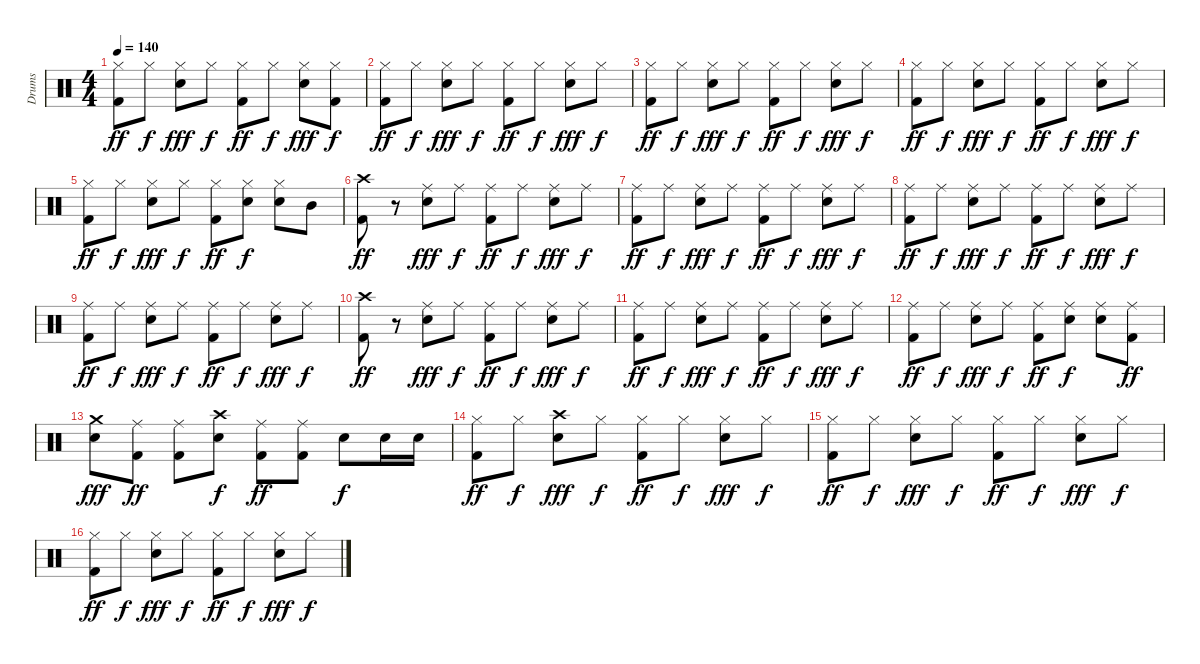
\track ("Drums" "Drums") {instrument percussion}
\staff {score}
\articulation defaults
\ts (4 4)
\tempo 140
\clef neutral
\ks c
("Hi-Hat (closed)" "Kick (hit) 2").8{dy ff} "Hi-Hat (closed)".8{dy f} ("Hi-Hat (closed)" "Snare (hit) 2").8{dy fff} "Hi-Hat (closed)".8{dy f} ("Hi-Hat (closed)" "Kick (hit) 2").8{dy ff} "Hi-Hat (closed)".8{dy f} ("Hi-Hat (closed)" "Snare (hit) 2").8{dy fff} ("Hi-Hat (closed)" "Kick (hit) 2").8{dy f} |
("Hi-Hat (closed)" "Kick (hit) 2").8{dy ff} "Hi-Hat (closed)".8{dy f} ("Hi-Hat (closed)" "Snare (hit) 2").8{dy fff} "Hi-Hat (closed)".8{dy f} ("Hi-Hat (closed)" "Kick (hit) 2").8{dy ff} "Hi-Hat (closed)".8{dy f} ("Hi-Hat (closed)" "Snare (hit) 2").8{dy fff} "Hi-Hat (closed)".8{dy f} |
("Hi-Hat (closed)" "Kick (hit) 2").8{dy ff} "Hi-Hat (closed)".8{dy f} ("Hi-Hat (closed)" "Snare (hit) 2").8{dy fff} "Hi-Hat (closed)".8{dy f} ("Hi-Hat (closed)" "Kick (hit) 2").8{dy ff} "Hi-Hat (closed)".8{dy f} ("Hi-Hat (closed)" "Snare (hit) 2").8{dy fff} "Hi-Hat (closed)".8{dy f} |
("Hi-Hat (closed)" "Kick (hit) 2").8{dy ff} "Hi-Hat (closed)".8{dy f} ("Hi-Hat (closed)" "Snare (hit) 2").8{dy fff} "Hi-Hat (closed)".8{dy f} ("Hi-Hat (closed)" "Kick (hit) 2").8{dy ff} "Hi-Hat (closed)".8{dy f} ("Hi-Hat (closed)" "Snare (hit) 2").8{dy fff} "Hi-Hat (closed)".8{dy f} |
("Hi-Hat (closed)" "Kick (hit) 2").8{dy ff} "Hi-Hat (closed)".8{dy f} ("Hi-Hat (closed)" "Snare (hit) 2").8{dy fff} "Hi-Hat (closed)".8{dy f} ("Hi-Hat (closed)" "Kick (hit) 2").8{dy ff} ("Hi-Hat (closed)" "Snare (hit) 2").8{dy f} ("Hi-Hat (closed)" "Snare (hit) 2").8 "Mid Tom (hit)".8 |
("Crash high (hit)" "Kick (hit) 2").8{dy ff} r.8 ("Ride (middle)" "Snare (hit) 2").8{dy fff} "Ride (middle)".8{dy f} ("Ride (middle)" "Kick (hit) 2").8{dy ff} "Ride (middle)".8{dy f} ("Ride (middle)" "Snare (hit) 2").8{dy fff} "Ride (middle)".8{dy f} |
("Ride (middle)" "Kick (hit) 2").8{dy ff} "Ride (middle)".8{dy f} ("Ride (middle)" "Snare (hit) 2").8{dy fff} "Ride (middle)".8{dy f} ("Ride (middle)" "Kick (hit) 2").8{dy ff} "Ride (middle)".8{dy f} ("Ride (middle)" "Snare (hit) 2").8{dy fff} "Ride (middle)".8{dy f} |
("Ride (middle)" "Kick (hit) 2").8{dy ff} "Ride (middle)".8{dy f} ("Ride (middle)" "Snare (hit) 2").8{dy fff} "Ride (middle)".8{dy f} ("Ride (middle)" "Kick (hit) 2").8{dy ff} "Ride (middle)".8{dy f} ("Ride (middle)" "Snare (hit) 2").8{dy fff} "Ride (middle)".8{dy f} |
("Ride (middle)" "Kick (hit) 2").8{dy ff} "Ride (middle)".8{dy f} ("Ride (middle)" "Snare (hit) 2").8{dy fff} "Ride (middle)".8{dy f} ("Ride (middle)" "Kick (hit) 2").8{dy ff} "Ride (middle)".8{dy f} ("Ride (middle)" "Snare (hit) 2").8{dy fff} "Ride (middle)".8{dy f} |
("Crash high (hit)" "Kick (hit) 2").8{dy ff} r.8 ("Ride (middle)" "Snare (hit) 2").8{dy fff} "Ride (middle)".8{dy f} ("Ride (middle)" "Kick (hit) 2").8{dy ff} "Ride (middle)".8{dy f} ("Ride (middle)" "Snare (hit) 2").8{dy fff} "Ride (middle)".8{dy f} |
("Ride (middle)" "Kick (hit) 2").8{dy ff} "Ride (middle)".8{dy f} ("Ride (middle)" "Snare (hit) 2").8{dy fff} "Ride (middle)".8{dy f} ("Ride (middle)" "Kick (hit) 2").8{dy ff} "Ride (middle)".8{dy f} ("Ride (middle)" "Snare (hit) 2").8{dy fff} "Ride (middle)".8{dy f} |
("Ride (middle)" "Kick (hit) 2").8{dy ff} "Ride (middle)".8{dy f} ("Ride (middle)" "Snare (hit) 2").8{dy fff} "Ride (middle)".8{dy f} ("Ride (middle)" "Kick (hit) 2").8{dy ff} ("Ride (middle)" "Snare (hit) 2").8{dy f} ("Ride (middle)" "Snare (hit) 2").8 ("Ride (middle)" "Kick (hit) 2").8{dy ff} |
("Crash medium (hit)" "Snare (hit) 2").8{dy fff} ("Ride (middle)" "Kick (hit) 2").8{dy ff} ("Ride (middle)" "Kick (hit) 2").8 ("Crash high (hit)" "Snare (hit) 2").8{dy f} ("Ride (middle)" "Kick (hit) 2").8{dy ff} ("Ride (middle)" "Kick (hit) 2").8 "Snare (hit) 2".8{dy f} "Snare (hit) 2".16 "Snare (hit) 2".16 |
("Hi-Hat (closed)" "Kick (hit) 2").8{dy ff} "Hi-Hat (closed)".8{dy f} ("Crash high (hit)" "Snare (hit) 2").8{dy fff} "Hi-Hat (closed)".8{dy f} ("Hi-Hat (closed)" "Kick (hit) 2").8{dy ff} "Hi-Hat (closed)".8{dy f} ("Hi-Hat (closed)" "Snare (hit) 2").8{dy fff} "Hi-Hat (closed)".8{dy f} |
("Hi-Hat (closed)" "Kick (hit) 2").8{dy ff} "Hi-Hat (closed)".8{dy f} ("Hi-Hat (closed)" "Snare (hit) 2").8{dy fff} "Hi-Hat (closed)".8{dy f} ("Hi-Hat (closed)" "Kick (hit) 2").8{dy ff} "Hi-Hat (closed)".8{dy f} ("Hi-Hat (closed)" "Snare (hit) 2").8{dy fff} "Hi-Hat (closed)".8{dy f} |
("Hi-Hat (closed)" "Kick (hit) 2").8{dy ff} "Hi-Hat (closed)".8{dy f} ("Hi-Hat (closed)" "Snare (hit) 2").8{dy fff} "Hi-Hat (closed)".8{dy f} ("Hi-Hat (closed)" "Kick (hit) 2").8{dy ff} "Hi-Hat (closed)".8{dy f} ("Hi-Hat (closed)" "Snare (hit) 2").8{dy fff} "Hi-Hat (closed)".8{dy f}
